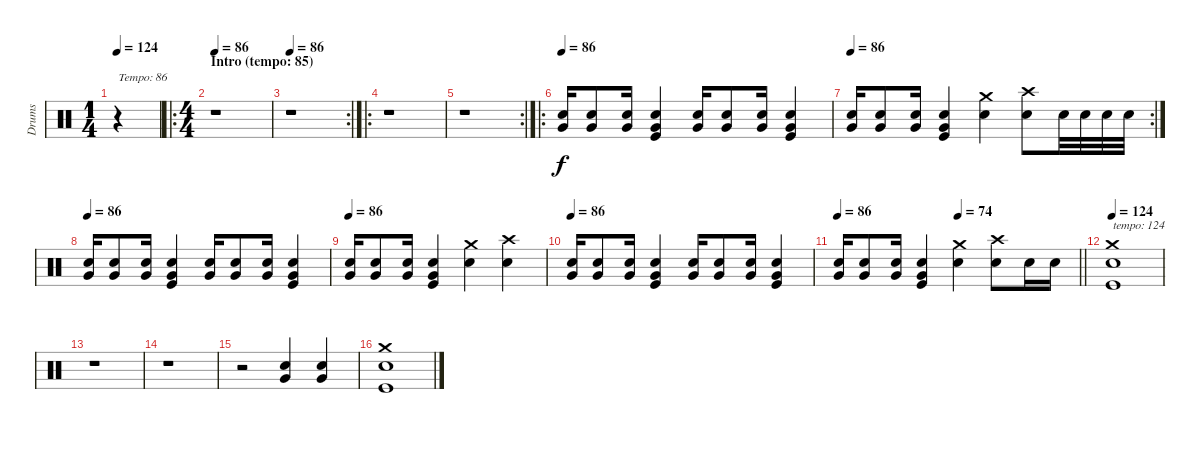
\track ("Drums" "Drums") {instrument percussion}
\staff {score}
\articulation defaults
\ts (1 4)
\tempo 124
\tempo 86
\tempo 124
\clef neutral
\ks c
r.4{txt "Tempo: 86" dy f} |
\ro
\ts (4 4)
\section ("" "Intro (tempo: 85)")
\tempo 86
r.1 |
\rc 2
\tempo 86
r.1 |
\ro
r.1 |
\rc 2
r.1 |
\ro
\tempo 86
("Very Low Tom (hit)" "Electric Snare (hit)").16 ("Very Low Tom (hit)" "Electric Snare (hit)").8 ("Very Low Tom (hit)" "Electric Snare (hit)").16 ("Very Low Tom (hit)" "Electric Snare (hit)" "Kick (hit)").4 ("Very Low Tom (hit)" "Electric Snare (hit)").16 ("Very Low Tom (hit)" "Electric Snare (hit)").8 ("Very Low Tom (hit)" "Electric Snare (hit)").16 ("Very Low Tom (hit)" "Electric Snare (hit)" "Kick (hit)").4 |
\rc 2
\tempo 86
("Very Low Tom (hit)" "Electric Snare (hit)").16 ("Very Low Tom (hit)" "Electric Snare (hit)").8 ("Very Low Tom (hit)" "Electric Snare (hit)").16 ("Very Low Tom (hit)" "Electric Snare (hit)" "Kick (hit)").4 ("Crash medium (hit)" "Electric Snare (hit)").4 ("Crash high (hit)" "Electric Snare (hit)").8 "Electric Snare (hit)".32 "Electric Snare (hit)".32 "Electric Snare (hit)".32 "Electric Snare (hit)".32 |
\tempo 86
("Very Low Tom (hit)" "Electric Snare (hit)").16 ("Very Low Tom (hit)" "Electric Snare (hit)").8 ("Very Low Tom (hit)" "Electric Snare (hit)").16 ("Very Low Tom (hit)" "Electric Snare (hit)" "Kick (hit)").4 ("Very Low Tom (hit)" "Electric Snare (hit)").16 ("Very Low Tom (hit)" "Electric Snare (hit)").8 ("Very Low Tom (hit)" "Electric Snare (hit)").16 ("Very Low Tom (hit)" "Electric Snare (hit)" "Kick (hit)").4 |
\tempo 86
("Very Low Tom (hit)" "Electric Snare (hit)").16 ("Very Low Tom (hit)" "Electric Snare (hit)").8 ("Very Low Tom (hit)" "Electric Snare (hit)").16 ("Very Low Tom (hit)" "Electric Snare (hit)" "Kick (hit)").4 ("Crash medium (hit)" "Electric Snare (hit)").4 ("Crash high (hit)" "Electric Snare (hit)").4 |
\tempo 86
("Very Low Tom (hit)" "Electric Snare (hit)").16 ("Very Low Tom (hit)" "Electric Snare (hit)").8 ("Very Low Tom (hit)" "Electric Snare (hit)").16 ("Very Low Tom (hit)" "Electric Snare (hit)" "Kick (hit)").4 ("Very Low Tom (hit)" "Electric Snare (hit)").16 ("Very Low Tom (hit)" "Electric Snare (hit)").8 ("Very Low Tom (hit)" "Electric Snare (hit)").16 ("Very Low Tom (hit)" "Electric Snare (hit)" "Kick (hit)").4 |
\tempo 86
\tempo (74 0.5)
\barLineRight lightlight
("Very Low Tom (hit)" "Electric Snare (hit)").16 ("Very Low Tom (hit)" "Electric Snare (hit)").8 ("Very Low Tom (hit)" "Electric Snare (hit)").16 ("Very Low Tom (hit)" "Electric Snare (hit)" "Kick (hit)").4 ("Crash medium (hit)" "Electric Snare (hit)").4 ("Crash high (hit)" "Electric Snare (hit)").8 "Electric Snare (hit)".16 "Electric Snare (hit)".16 |
\tempo 124
("Crash medium (hit)" "Electric Snare (hit)" "Kick (hit)").1{txt "tempo: 124"} |
r.1 |
r.1 |
r.2 ("Very Low Tom (hit)" "Electric Snare (hit)").4 ("Very Low Tom (hit)" "Electric Snare (hit)").4 |
("Crash medium (hit)" "Electric Snare (hit)" "Kick (hit)").1
